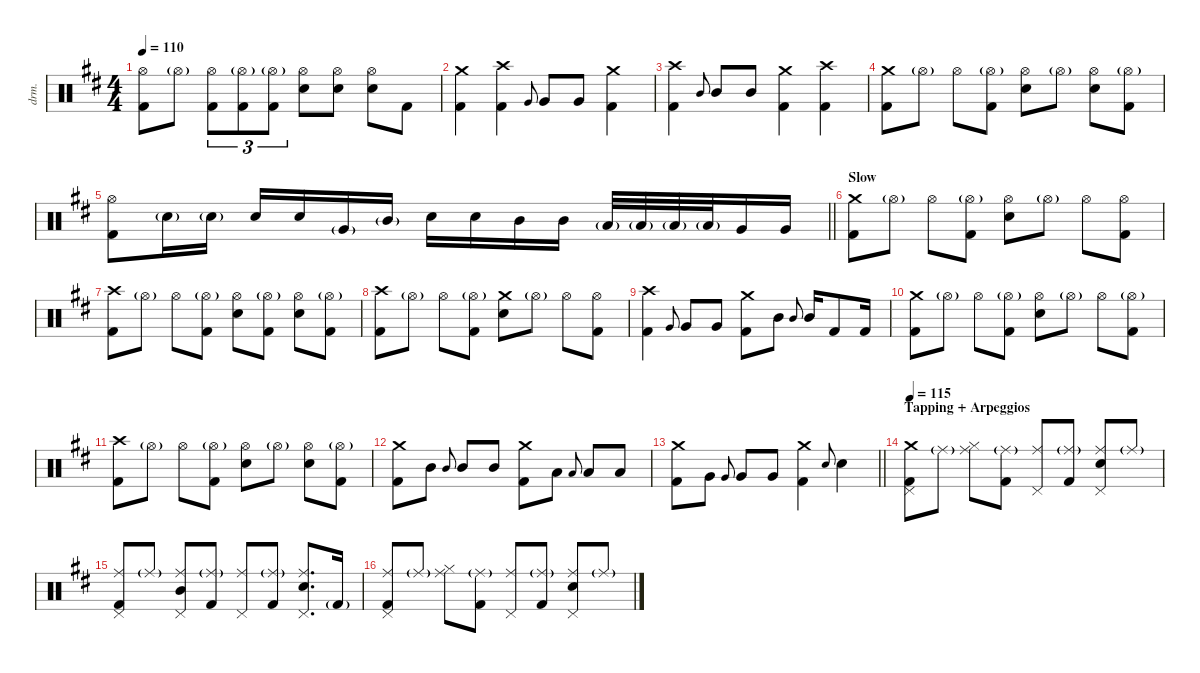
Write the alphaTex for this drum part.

\defaultSystemsLayout 4
\hideDynamics
\bracketExtendMode nobrackets
\track ("Atma Anur" "drm.") {solo instrument percussion}
\staff {score}
\articulation defaults
\ts (4 4)
\tempo 110
\clef neutral
\ks bminor
("Hi-Hat (open)"{acc forcenatural} "Kick (hit) 2"{acc forcenatural}).8{dy fff beam Down} "Hi-Hat (open)"{g acc forcenatural}.8{dy ff beam Down} ("Hi-Hat (open)"{acc forcenatural} "Kick (hit) 2"{acc forcenatural}).8{tu (3 2) dy fff beam Down} ("Hi-Hat (open)"{g acc forcenatural} "Kick (hit) 2"{acc forcenatural}).8{tu (3 2) beam Down} ("Hi-Hat (open)"{g acc forcenatural} "Kick (hit) 2"{acc forcenatural}).8{tu (3 2) beam Down} ("Hi-Hat (open)"{acc forcenatural} "Snare (hit) 2"{acc forcenatural}).8{beam Down} ("Hi-Hat (open)"{acc forcenatural} "Snare (hit) 2"{acc forcenatural}).8{beam Down} ("Hi-Hat (open)"{acc forcenatural} "Snare (hit) 2"{acc forcenatural}).8{beam Down} "Kick (hit) 2"{acc forcenatural}.8{beam Down} |
("Crash medium (hit)"{acc forcenatural} "Kick (hit) 2"{acc forcenatural}).4{beam Down} ("Crash high (hit)"{acc forcenatural} "Kick (hit) 2"{acc forcenatural}).4{beam Down} "Very Low Tom (hit)"{acc forcenatural}.8{gr onbeat dy ff beam Up} "Very Low Tom (hit)"{acc forcenatural}.8{dy fff beam Up} "Very Low Tom (hit)"{acc forcenatural}.8{beam Up} ("Crash medium (hit)"{acc forcenatural} "Kick (hit) 2"{acc forcenatural}).4{beam Down} |
("Crash high (hit)"{acc forcenatural} "Kick (hit) 2"{acc forcenatural}).4{beam Down} "Mid Tom (hit)"{acc forcenatural}.8{gr onbeat dy ff beam Up} "Mid Tom (hit)"{acc forcenatural}.8{dy fff beam Up} "Mid Tom (hit)"{acc forcenatural}.8{beam Up} ("Crash medium (hit)"{acc forcenatural} "Kick (hit) 2"{acc forcenatural}).4{beam Down} ("Crash high (hit)"{acc forcenatural} "Kick (hit) 2"{acc forcenatural}).4{beam Down} |
("Crash medium (hit)"{acc forcenatural} "Kick (hit) 2"{acc forcenatural}).8{beam Down} "Hi-Hat (open)"{g acc forcenatural}.8{dy ff beam Down} "Hi-Hat (open)"{acc forcenatural}.8{dy fff beam Down} ("Hi-Hat (open)"{g acc forcenatural} "Kick (hit) 2"{acc forcenatural}).8{beam Down} ("Hi-Hat (open)"{acc forcenatural} "Snare (hit) 2"{acc forcenatural}).8{beam Down} "Hi-Hat (open)"{g acc forcenatural}.8{dy ff beam Down} ("Hi-Hat (open)"{acc forcenatural} "Snare (hit) 2"{acc forcenatural}).8{dy fff beam Down} ("Hi-Hat (open)"{g acc forcenatural} "Kick (hit) 2"{acc forcenatural}).8{beam Down} |
\barLineRight lightlight
("Hi-Hat (open)"{acc forcenatural} "Kick (hit) 2"{acc forcenatural}).8{beam Down} "Snare (hit) 2"{g acc forcenatural}.16{dy ff beam Down} "Snare (hit) 2"{g acc forcenatural}.16{beam Down} "Snare (hit) 2"{acc forcenatural}.16{dy fff beam Up} "Snare (hit) 2"{acc forcenatural}.16{beam Up} "Very Low Tom (hit)"{g acc forcenatural}.16{dy ff beam Up} "Mid Tom (hit)"{g acc forcenatural}.16{beam Up} "Snare (hit) 2"{acc forcenatural}.16{dy fff beam Down} "Snare (hit) 2"{acc forcenatural}.16{beam Down} "Mid Tom (hit)"{acc forcenatural}.16{beam Down} "Mid Tom (hit)"{acc forcenatural}.16{beam Down} "Low Tom (hit)"{g acc forcenatural}.32{dy ff beam Up} "Low Tom (hit)"{g acc forcenatural}.32{beam Up} "Low Tom (hit)"{g acc forcenatural}.32{beam Up} "Low Tom (hit)"{g acc forcenatural}.32{beam Up} "Very Low Tom (hit)"{acc forcenatural}.16{dy fff beam Up} "Very Low Tom (hit)"{acc forcenatural}.16{beam Up} |
\section ("" "Slow")
("Crash medium (hit)"{acc forcenatural} "Kick (hit) 2"{acc forcenatural}).8{beam Down} "Hi-Hat (open)"{g acc forcenatural}.8{dy ff beam Down} "Hi-Hat (open)"{acc forcenatural}.8{dy fff beam Down} ("Hi-Hat (open)"{g acc forcenatural} "Kick (hit) 2"{acc forcenatural}).8{beam Down} ("Hi-Hat (open)"{acc forcenatural} "Snare (hit) 2"{acc forcenatural}).8{beam Down} "Hi-Hat (open)"{g acc forcenatural}.8{dy ff beam Down} "Hi-Hat (open)"{acc forcenatural}.8{dy fff beam Down} ("Hi-Hat (open)"{acc forcenatural} "Kick (hit) 2"{acc forcenatural}).8{beam Down} |
("Crash high (hit)"{acc forcenatural} "Kick (hit) 2"{acc forcenatural}).8{beam Down} "Hi-Hat (open)"{g acc forcenatural}.8{dy ff beam Down} "Hi-Hat (open)"{acc forcenatural}.8{dy fff beam Down} ("Hi-Hat (open)"{g acc forcenatural} "Kick (hit) 2"{acc forcenatural}).8{beam Down} ("Hi-Hat (open)"{acc forcenatural} "Snare (hit) 2"{acc forcenatural}).8{beam Down} ("Hi-Hat (open)"{g acc forcenatural} "Kick (hit) 2"{acc forcenatural}).8{beam Down} ("Hi-Hat (open)"{acc forcenatural} "Snare (hit) 2"{acc forcenatural}).8{beam Down} ("Hi-Hat (open)"{g acc forcenatural} "Kick (hit) 2"{acc forcenatural}).8{beam Down} |
("Crash high (hit)"{acc forcenatural} "Kick (hit) 2"{acc forcenatural}).8{beam Down} "Hi-Hat (open)"{g acc forcenatural}.8{dy ff beam Down} "Hi-Hat (open)"{acc forcenatural}.8{dy fff beam Down} ("Hi-Hat (open)"{g acc forcenatural} "Kick (hit) 2"{acc forcenatural}).8{beam Down} ("Crash medium (hit)"{acc forcenatural} "Snare (hit) 2"{acc forcenatural}).8{beam Down} "Hi-Hat (open)"{g acc forcenatural}.8{dy ff beam Down} "Hi-Hat (open)"{acc forcenatural}.8{dy fff beam Down} ("Hi-Hat (open)"{acc forcenatural} "Kick (hit) 2"{acc forcenatural}).8{beam Down} |
("Crash high (hit)"{acc forcenatural} "Kick (hit) 2"{acc forcenatural}).4{beam Down} "Very Low Tom (hit)"{acc forcenatural}.8{gr onbeat dy ff beam Up} "Very Low Tom (hit)"{acc forcenatural}.8{dy fff beam Up} "Very Low Tom (hit)"{acc forcenatural}.8{beam Up} ("Crash medium (hit)"{acc forcenatural} "Kick (hit) 2"{acc forcenatural}).8{beam Down} "Mid Tom (hit)"{acc forcenatural}.8{beam Down} "Mid Tom (hit)"{acc forcenatural}.8{gr onbeat dy ff beam Up} "Mid Tom (hit)"{acc forcenatural}.16{dy fff beam Up} "Kick (hit) 2"{acc forcenatural}.8{beam Up} "Kick (hit) 2"{acc forcenatural}.16{beam Up} |
("Crash medium (hit)"{acc forcenatural} "Kick (hit) 2"{acc forcenatural}).8{beam Down} "Hi-Hat (open)"{g acc forcenatural}.8{dy ff beam Down} "Hi-Hat (open)"{acc forcenatural}.8{dy fff beam Down} ("Hi-Hat (open)"{g acc forcenatural} "Kick (hit) 2"{acc forcenatural}).8{beam Down} ("Hi-Hat (open)"{acc forcenatural} "Snare (hit) 2"{acc forcenatural}).8{beam Down} "Hi-Hat (open)"{g acc forcenatural}.8{dy ff beam Down} "Hi-Hat (open)"{acc forcenatural}.8{dy fff beam Down} ("Hi-Hat (open)"{g acc forcenatural} "Kick (hit) 2"{acc forcenatural}).8{beam Down} |
("Crash high (hit)"{acc forcenatural} "Kick (hit) 2"{acc forcenatural}).8{beam Down} "Hi-Hat (open)"{g acc forcenatural}.8{dy ff beam Down} "Hi-Hat (open)"{acc forcenatural}.8{dy fff beam Down} ("Hi-Hat (open)"{g acc forcenatural} "Kick (hit) 2"{acc forcenatural}).8{beam Down} ("Hi-Hat (open)"{acc forcenatural} "Snare (hit) 2"{acc forcenatural}).8{beam Down} "Hi-Hat (open)"{g acc forcenatural}.8{dy ff beam Down} ("Hi-Hat (open)"{acc forcenatural} "Snare (hit) 2"{acc forcenatural}).8{dy fff beam Down} ("Hi-Hat (open)"{g acc forcenatural} "Kick (hit) 2"{acc forcenatural}).8{beam Down} |
("Crash medium (hit)"{acc forcenatural} "Kick (hit) 2"{acc forcenatural}).8{beam Down} "Mid Tom (hit)"{acc forcenatural}.8{beam Down} "Mid Tom (hit)"{acc forcenatural}.8{gr onbeat dy ff beam Up} "Mid Tom (hit)"{acc forcenatural}.8{dy fff beam Up} "Mid Tom (hit)"{acc forcenatural}.8{beam Up} ("Crash medium (hit)"{acc forcenatural} "Kick (hit) 2"{acc forcenatural}).8{beam Down} "Low Tom (hit)"{acc forcenatural}.8{beam Down} "Low Tom (hit)"{acc forcenatural}.8{gr onbeat dy ff beam Up} "Low Tom (hit)"{acc forcenatural}.8{dy fff beam Up} "Low Tom (hit)"{acc forcenatural}.8{beam Up} |
\barLineRight lightlight
("Crash medium (hit)"{acc forcenatural} "Kick (hit) 2"{acc forcenatural}).8{beam Down} "Very Low Tom (hit)"{acc forcenatural}.8{beam Down} "Very Low Tom (hit)"{acc forcenatural}.8{gr onbeat dy ff beam Up} "Very Low Tom (hit)"{acc forcenatural}.8{dy fff beam Up} "Very Low Tom (hit)"{acc forcenatural}.8{beam Up} ("Crash medium (hit)"{acc forcenatural} "Kick (hit) 2"{acc forcenatural}).4{beam Down} "Electric Snare (hit)"{acc forcenatural}.8{gr onbeat dy ff beam Up} "Snare (hit) 2"{acc forcenatural}.4{dy fff beam Down} |
\section ("" "Tapping + Arpeggios")
\tempo 115
("Crash medium (hit)"{acc forcenatural} "Pedal Hi-Hat (hit)"{acc forcenatural} "Kick (hit) 2"{acc forcenatural}).8{beam Down} "Ride (middle)"{g acc forcenatural}.8{dy ff beam Down} ("Ride (middle)"{acc forcenatural} "Hi-Hat (closed)"{acc forcenatural}).8{dy fff beam Down} ("Ride (middle)"{g acc forcenatural} "Kick (hit) 2"{acc forcenatural}).8{beam Down} ("Ride (middle)"{acc forcenatural} "Pedal Hi-Hat (hit)"{acc forcenatural}).8{beam Up} ("Ride (middle)"{g acc forcenatural} "Kick (hit) 2"{acc forcenatural}).8{beam Up} ("Ride (middle)"{acc forcenatural} "Snare (hit) 2"{acc forcenatural} "Pedal Hi-Hat (hit)"{acc forcenatural}).8{beam Up} "Ride (middle)"{g acc forcenatural}.8{dy ff beam Up} |
("Ride (middle)"{acc forcenatural} "Pedal Hi-Hat (hit)"{acc forcenatural} "Kick (hit) 2"{acc forcenatural}).8{dy fff beam Up} "Ride (middle)"{g acc forcenatural}.8{dy ff beam Up} ("Ride (middle)"{acc forcenatural} "Mid Tom (hit)"{acc forcenatural} "Pedal Hi-Hat (hit)"{acc forcenatural}).8{dy fff beam Up} ("Ride (middle)"{g acc forcenatural} "Kick (hit) 2"{acc forcenatural}).8{beam Up} ("Ride (middle)"{acc forcenatural} "Pedal Hi-Hat (hit)"{acc forcenatural}).8{beam Up} ("Ride (middle)"{g acc forcenatural} "Kick (hit) 2"{acc forcenatural}).8{beam Up} ("Ride (middle)"{acc forcenatural} "Snare (hit) 2"{acc forcenatural} "Pedal Hi-Hat (hit)"{acc forcenatural}).8{d beam Up} "Kick (hit) 2"{g acc forcenatural}.16{dy ff beam Up} |
("Ride (middle)"{acc forcenatural} "Pedal Hi-Hat (hit)"{acc forcenatural} "Kick (hit) 2"{acc forcenatural}).8{dy fff beam Up} "Ride (middle)"{g acc forcenatural}.8{dy ff beam Up} ("Ride (middle)"{acc forcenatural} "Hi-Hat (closed)"{acc forcenatural}).8{dy fff beam Down} ("Ride (middle)"{g acc forcenatural} "Kick (hit) 2"{acc forcenatural}).8{beam Down} ("Ride (middle)"{acc forcenatural} "Pedal Hi-Hat (hit)"{acc forcenatural}).8{beam Up} ("Ride (middle)"{g acc forcenatural} "Kick (hit) 2"{acc forcenatural}).8{beam Up} ("Ride (middle)"{acc forcenatural} "Snare (hit) 2"{acc forcenatural} "Pedal Hi-Hat (hit)"{acc forcenatural}).8{beam Up} "Ride (middle)"{g acc forcenatural}.8{dy ff beam Up}
